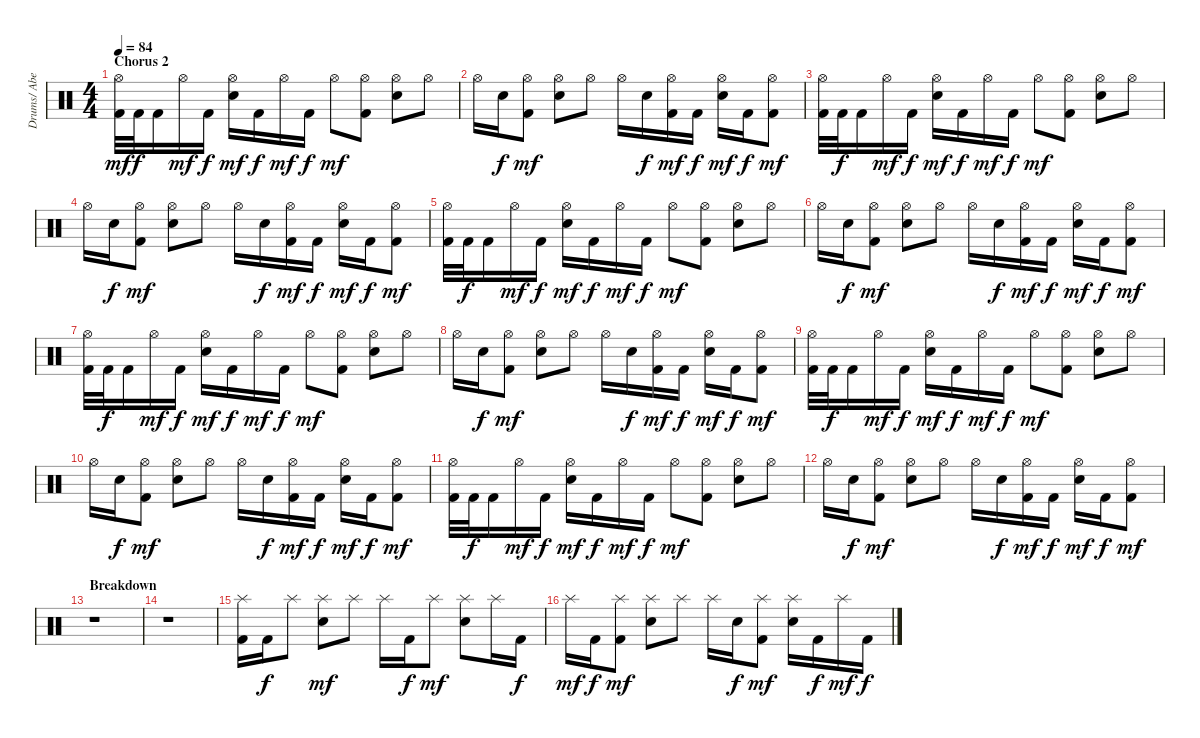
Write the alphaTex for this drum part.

\track ("Drums/ Abe Cunningham" "Drums/ Abe") {instrument percussion}
\staff {score}
\articulation defaults
\ts (4 4)
\section ("" "Chorus 2")
\tempo 84
\clef neutral
\ks c
("Hi-Hat (open)" "Kick (hit) 2").32{dy mf} "Kick (hit) 2".32{dy f} "Kick (hit) 2".16 "Hi-Hat (open)".16{dy mf} "Kick (hit) 2".16{dy f} ("Hi-Hat (open)" "Electric Snare (hit)").16{dy mf} "Kick (hit) 2".16{dy f} "Hi-Hat (open)".16{dy mf} "Kick (hit) 2".16{dy f} "Hi-Hat (open)".8{dy mf} ("Hi-Hat (open)" "Kick (hit) 2").8 ("Hi-Hat (open)" "Electric Snare (hit)").8 "Hi-Hat (open)".8 |
"Hi-Hat (open)".16 "Electric Snare (hit)".16{dy f} ("Hi-Hat (open)" "Kick (hit) 2").8{dy mf} ("Hi-Hat (open)" "Electric Snare (hit)").8 "Hi-Hat (open)".8 "Hi-Hat (open)".16 "Electric Snare (hit)".16{dy f} ("Hi-Hat (open)" "Kick (hit) 2").16{dy mf} "Kick (hit) 2".16{dy f} ("Hi-Hat (open)" "Electric Snare (hit)").16{dy mf} "Kick (hit) 2".16{dy f} ("Hi-Hat (open)" "Kick (hit) 2").8{dy mf} |
("Hi-Hat (open)" "Kick (hit) 2").32 "Kick (hit) 2".32{dy f} "Kick (hit) 2".16 "Hi-Hat (open)".16{dy mf} "Kick (hit) 2".16{dy f} ("Hi-Hat (open)" "Electric Snare (hit)").16{dy mf} "Kick (hit) 2".16{dy f} "Hi-Hat (open)".16{dy mf} "Kick (hit) 2".16{dy f} "Hi-Hat (open)".8{dy mf} ("Hi-Hat (open)" "Kick (hit) 2").8 ("Hi-Hat (open)" "Electric Snare (hit)").8 "Hi-Hat (open)".8 |
"Hi-Hat (open)".16 "Electric Snare (hit)".16{dy f} ("Hi-Hat (open)" "Kick (hit) 2").8{dy mf} ("Hi-Hat (open)" "Electric Snare (hit)").8 "Hi-Hat (open)".8 "Hi-Hat (open)".16 "Electric Snare (hit)".16{dy f} ("Hi-Hat (open)" "Kick (hit) 2").16{dy mf} "Kick (hit) 2".16{dy f} ("Hi-Hat (open)" "Electric Snare (hit)").16{dy mf} "Kick (hit) 2".16{dy f} ("Hi-Hat (open)" "Kick (hit) 2").8{dy mf} |
("Hi-Hat (open)" "Kick (hit) 2").32 "Kick (hit) 2".32{dy f} "Kick (hit) 2".16 "Hi-Hat (open)".16{dy mf} "Kick (hit) 2".16{dy f} ("Hi-Hat (open)" "Electric Snare (hit)").16{dy mf} "Kick (hit) 2".16{dy f} "Hi-Hat (open)".16{dy mf} "Kick (hit) 2".16{dy f} "Hi-Hat (open)".8{dy mf} ("Hi-Hat (open)" "Kick (hit) 2").8 ("Hi-Hat (open)" "Electric Snare (hit)").8 "Hi-Hat (open)".8 |
"Hi-Hat (open)".16 "Electric Snare (hit)".16{dy f} ("Hi-Hat (open)" "Kick (hit) 2").8{dy mf} ("Hi-Hat (open)" "Electric Snare (hit)").8 "Hi-Hat (open)".8 "Hi-Hat (open)".16 "Electric Snare (hit)".16{dy f} ("Hi-Hat (open)" "Kick (hit) 2").16{dy mf} "Kick (hit) 2".16{dy f} ("Hi-Hat (open)" "Electric Snare (hit)").16{dy mf} "Kick (hit) 2".16{dy f} ("Hi-Hat (open)" "Kick (hit) 2").8{dy mf} |
("Hi-Hat (open)" "Kick (hit) 2").32 "Kick (hit) 2".32{dy f} "Kick (hit) 2".16 "Hi-Hat (open)".16{dy mf} "Kick (hit) 2".16{dy f} ("Hi-Hat (open)" "Electric Snare (hit)").16{dy mf} "Kick (hit) 2".16{dy f} "Hi-Hat (open)".16{dy mf} "Kick (hit) 2".16{dy f} "Hi-Hat (open)".8{dy mf} ("Hi-Hat (open)" "Kick (hit) 2").8 ("Hi-Hat (open)" "Electric Snare (hit)").8 "Hi-Hat (open)".8 |
"Hi-Hat (open)".16 "Electric Snare (hit)".16{dy f} ("Hi-Hat (open)" "Kick (hit) 2").8{dy mf} ("Hi-Hat (open)" "Electric Snare (hit)").8 "Hi-Hat (open)".8 "Hi-Hat (open)".16 "Electric Snare (hit)".16{dy f} ("Hi-Hat (open)" "Kick (hit) 2").16{dy mf} "Kick (hit) 2".16{dy f} ("Hi-Hat (open)" "Electric Snare (hit)").16{dy mf} "Kick (hit) 2".16{dy f} ("Hi-Hat (open)" "Kick (hit) 2").8{dy mf} |
("Hi-Hat (open)" "Kick (hit) 2").32 "Kick (hit) 2".32{dy f} "Kick (hit) 2".16 "Hi-Hat (open)".16{dy mf} "Kick (hit) 2".16{dy f} ("Hi-Hat (open)" "Electric Snare (hit)").16{dy mf} "Kick (hit) 2".16{dy f} "Hi-Hat (open)".16{dy mf} "Kick (hit) 2".16{dy f} "Hi-Hat (open)".8{dy mf} ("Hi-Hat (open)" "Kick (hit) 2").8 ("Hi-Hat (open)" "Electric Snare (hit)").8 "Hi-Hat (open)".8 |
"Hi-Hat (open)".16 "Electric Snare (hit)".16{dy f} ("Hi-Hat (open)" "Kick (hit) 2").8{dy mf} ("Hi-Hat (open)" "Electric Snare (hit)").8 "Hi-Hat (open)".8 "Hi-Hat (open)".16 "Electric Snare (hit)".16{dy f} ("Hi-Hat (open)" "Kick (hit) 2").16{dy mf} "Kick (hit) 2".16{dy f} ("Hi-Hat (open)" "Electric Snare (hit)").16{dy mf} "Kick (hit) 2".16{dy f} ("Hi-Hat (open)" "Kick (hit) 2").8{dy mf} |
("Hi-Hat (open)" "Kick (hit) 2").32 "Kick (hit) 2".32{dy f} "Kick (hit) 2".16 "Hi-Hat (open)".16{dy mf} "Kick (hit) 2".16{dy f} ("Hi-Hat (open)" "Electric Snare (hit)").16{dy mf} "Kick (hit) 2".16{dy f} "Hi-Hat (open)".16{dy mf} "Kick (hit) 2".16{dy f} "Hi-Hat (open)".8{dy mf} ("Hi-Hat (open)" "Kick (hit) 2").8 ("Hi-Hat (open)" "Electric Snare (hit)").8 "Hi-Hat (open)".8 |
"Hi-Hat (open)".16 "Electric Snare (hit)".16{dy f} ("Hi-Hat (open)" "Kick (hit) 2").8{dy mf} ("Hi-Hat (open)" "Electric Snare (hit)").8 "Hi-Hat (open)".8 "Hi-Hat (open)".16 "Electric Snare (hit)".16{dy f} ("Hi-Hat (open)" "Kick (hit) 2").16{dy mf} "Kick (hit) 2".16{dy f} ("Hi-Hat (open)" "Electric Snare (hit)").16{dy mf} "Kick (hit) 2".16{dy f} ("Hi-Hat (open)" "Kick (hit) 2").8{dy mf} |
\section ("" "Breakdown")
r.1 |
r.1 |
("Splash (hit)" "Kick (hit) 2").16 "Kick (hit) 2".16{dy f} "Splash (hit)".8 ("Splash (hit)" "Electric Snare (hit)").8{dy mf} "Splash (hit)".8 "Splash (hit)".16 "Kick (hit) 2".16{dy f} "Splash (hit)".8{dy mf} ("Splash (hit)" "Electric Snare (hit)").8 "Splash (hit)".16 "Kick (hit) 2".16{dy f} |
"Splash (hit)".16{dy mf} "Kick (hit) 2".16{dy f} ("Splash (hit)" "Kick (hit) 2").8{dy mf} ("Splash (hit)" "Electric Snare (hit)").8 "Splash (hit)".8 "Splash (hit)".16 "Electric Snare (hit)".16{dy f} ("Splash (hit)" "Kick (hit) 2").8{dy mf} ("Splash (hit)" "Electric Snare (hit)").16 "Kick (hit) 2".16{dy f} "Splash (hit)".16{dy mf} "Kick (hit) 2".16{dy f}
